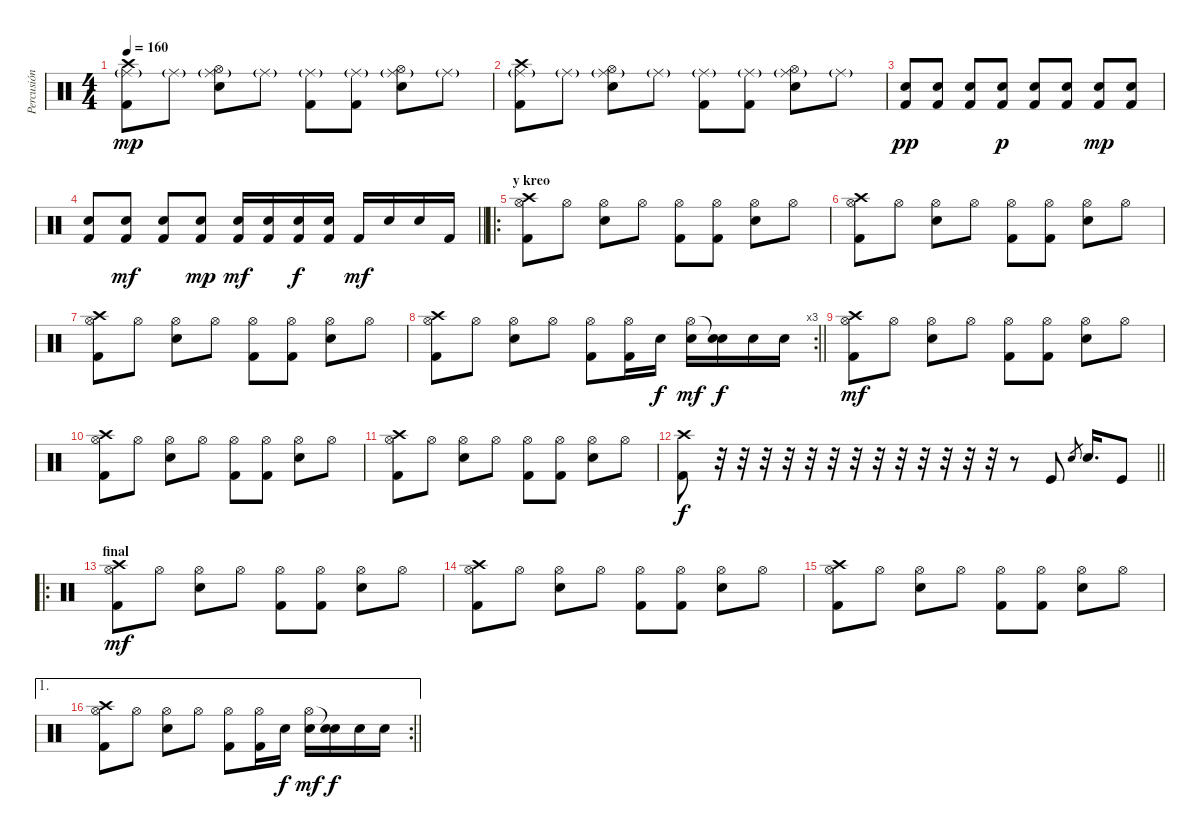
\track ("Percusión" "Percusión") {instrument percussion}
\staff {score}
\articulation defaults
\ts (4 4)
\tempo 160
\clef neutral
\ks c
("Crash high (hit)" "Ride (middle)"{g} "Kick (hit) 2").8{dy mp} "Ride (middle)"{g}.8 ("Hi-Hat (open)" "Ride (middle)"{g} "Electric Snare (hit)").8 "Ride (middle)"{g}.8 ("Ride (middle)"{g} "Kick (hit) 2").8 ("Ride (middle)"{g} "Kick (hit) 2").8 ("Hi-Hat (open)" "Ride (middle)"{g} "Electric Snare (hit)").8 "Ride (middle)"{g}.8 |
("Crash high (hit)" "Ride (middle)"{g} "Kick (hit) 2").8 "Ride (middle)"{g}.8 ("Hi-Hat (open)" "Ride (middle)"{g} "Electric Snare (hit)").8 "Ride (middle)"{g}.8 ("Ride (middle)"{g} "Kick (hit) 2").8 ("Ride (middle)"{g} "Kick (hit) 2").8 ("Hi-Hat (open)" "Ride (middle)"{g} "Electric Snare (hit)").8 "Ride (middle)"{g}.8 |
("Electric Snare (hit)" "Kick (hit) 2").8{dy pp} ("Electric Snare (hit)" "Kick (hit) 2").8 ("Electric Snare (hit)" "Kick (hit) 2").8 ("Electric Snare (hit)" "Kick (hit) 2").8{dy p} ("Electric Snare (hit)" "Kick (hit) 2").8 ("Electric Snare (hit)" "Kick (hit) 2").8 ("Electric Snare (hit)" "Kick (hit) 2").8{dy mp} ("Electric Snare (hit)" "Kick (hit) 2").8 |
\barLineRight lightlight
("Electric Snare (hit)" "Kick (hit) 2").8 ("Electric Snare (hit)" "Kick (hit) 2").8{dy mf} ("Electric Snare (hit)" "Kick (hit) 2").8 ("Electric Snare (hit)" "Kick (hit) 2").8{dy mp} ("Electric Snare (hit)" "Kick (hit) 2").16{dy mf} ("Electric Snare (hit)" "Kick (hit) 2").16 ("Electric Snare (hit)" "Kick (hit) 2").16{dy f} ("Electric Snare (hit)" "Kick (hit) 2").16 "Kick (hit) 2".16{dy mf} "Electric Snare (hit)".16 "Electric Snare (hit)".16 "Kick (hit) 2".16 |
\ro
\section ("" "y kreo")
("Crash high (hit)" "Hi-Hat (open)" "Kick (hit) 2").8 "Hi-Hat (open)".8 ("Hi-Hat (open)" "Electric Snare (hit)").8 "Hi-Hat (open)".8 ("Hi-Hat (open)" "Kick (hit) 2").8 ("Hi-Hat (open)" "Kick (hit) 2").8 ("Hi-Hat (open)" "Electric Snare (hit)").8 "Hi-Hat (open)".8 |
("Crash high (hit)" "Hi-Hat (open)" "Kick (hit) 2").8 "Hi-Hat (open)".8 ("Hi-Hat (open)" "Electric Snare (hit)").8 "Hi-Hat (open)".8 ("Hi-Hat (open)" "Kick (hit) 2").8 ("Hi-Hat (open)" "Kick (hit) 2").8 ("Hi-Hat (open)" "Electric Snare (hit)").8 "Hi-Hat (open)".8 |
("Crash high (hit)" "Hi-Hat (open)" "Kick (hit) 2").8 "Hi-Hat (open)".8 ("Hi-Hat (open)" "Electric Snare (hit)").8 "Hi-Hat (open)".8 ("Hi-Hat (open)" "Kick (hit) 2").8 ("Hi-Hat (open)" "Kick (hit) 2").8 ("Hi-Hat (open)" "Electric Snare (hit)").8 "Hi-Hat (open)".8 |
\rc 3
\barLineRight lightlight
("Crash high (hit)" "Hi-Hat (open)" "Kick (hit) 2").8 "Hi-Hat (open)".8 ("Hi-Hat (open)" "Electric Snare (hit)").8 "Hi-Hat (open)".8 ("Hi-Hat (open)" "Kick (hit) 2").8 ("Hi-Hat (open)" "Kick (hit) 2").16 "Electric Snare (hit)".16{dy f} ("Hi-Hat (open)" "Electric Snare (hit)").16{dy mf} ("Snare (hit)"{t} "Electric Snare (hit)").16{dy f} "Electric Snare (hit)".16 "Electric Snare (hit)".16 |
("Crash high (hit)" "Hi-Hat (open)" "Kick (hit) 2").8{dy mf} "Hi-Hat (open)".8 ("Hi-Hat (open)" "Electric Snare (hit)").8 "Hi-Hat (open)".8 ("Hi-Hat (open)" "Kick (hit) 2").8 ("Hi-Hat (open)" "Kick (hit) 2").8 ("Hi-Hat (open)" "Electric Snare (hit)").8 "Hi-Hat (open)".8 |
("Crash high (hit)" "Hi-Hat (open)" "Kick (hit) 2").8 "Hi-Hat (open)".8 ("Hi-Hat (open)" "Electric Snare (hit)").8 "Hi-Hat (open)".8 ("Hi-Hat (open)" "Kick (hit) 2").8 ("Hi-Hat (open)" "Kick (hit) 2").8 ("Hi-Hat (open)" "Electric Snare (hit)").8 "Hi-Hat (open)".8 |
("Crash high (hit)" "Hi-Hat (open)" "Kick (hit) 2").8 "Hi-Hat (open)".8 ("Hi-Hat (open)" "Electric Snare (hit)").8 "Hi-Hat (open)".8 ("Hi-Hat (open)" "Kick (hit) 2").8 ("Hi-Hat (open)" "Kick (hit) 2").8 ("Hi-Hat (open)" "Electric Snare (hit)").8 "Hi-Hat (open)".8 |
\barLineRight lightlight
("Crash high (hit)" "Kick (hit) 2").8{dy f} r.32 r.32 r.32 r.32 r.32 r.32 r.32 r.32 r.32 r.32 r.32 r.32 r.32 r.8 "Kick (hit)".8 "Electric Snare (hit)".8{gr} "Electric Snare (hit)".16{d} "Kick (hit)".8 |
\ro
\section ("" "final")
("Crash high (hit)" "Hi-Hat (open)" "Kick (hit) 2").8{dy mf} "Hi-Hat (open)".8 ("Hi-Hat (open)" "Electric Snare (hit)").8 "Hi-Hat (open)".8 ("Hi-Hat (open)" "Kick (hit) 2").8 ("Hi-Hat (open)" "Kick (hit) 2").8 ("Hi-Hat (open)" "Electric Snare (hit)").8 "Hi-Hat (open)".8 |
("Crash high (hit)" "Hi-Hat (open)" "Kick (hit) 2").8 "Hi-Hat (open)".8 ("Hi-Hat (open)" "Electric Snare (hit)").8 "Hi-Hat (open)".8 ("Hi-Hat (open)" "Kick (hit) 2").8 ("Hi-Hat (open)" "Kick (hit) 2").8 ("Hi-Hat (open)" "Electric Snare (hit)").8 "Hi-Hat (open)".8 |
("Crash high (hit)" "Hi-Hat (open)" "Kick (hit) 2").8 "Hi-Hat (open)".8 ("Hi-Hat (open)" "Electric Snare (hit)").8 "Hi-Hat (open)".8 ("Hi-Hat (open)" "Kick (hit) 2").8 ("Hi-Hat (open)" "Kick (hit) 2").8 ("Hi-Hat (open)" "Electric Snare (hit)").8 "Hi-Hat (open)".8 |
\ae 1
\rc 2
\barLineRight lightlight
("Crash high (hit)" "Hi-Hat (open)" "Kick (hit) 2").8 "Hi-Hat (open)".8 ("Hi-Hat (open)" "Electric Snare (hit)").8 "Hi-Hat (open)".8 ("Hi-Hat (open)" "Kick (hit) 2").8 ("Hi-Hat (open)" "Kick (hit) 2").16 "Electric Snare (hit)".16{dy f} ("Hi-Hat (open)" "Electric Snare (hit)").16{dy mf} ("Snare (hit)"{t} "Electric Snare (hit)").16{dy f} "Electric Snare (hit)".16 "Electric Snare (hit)".16
